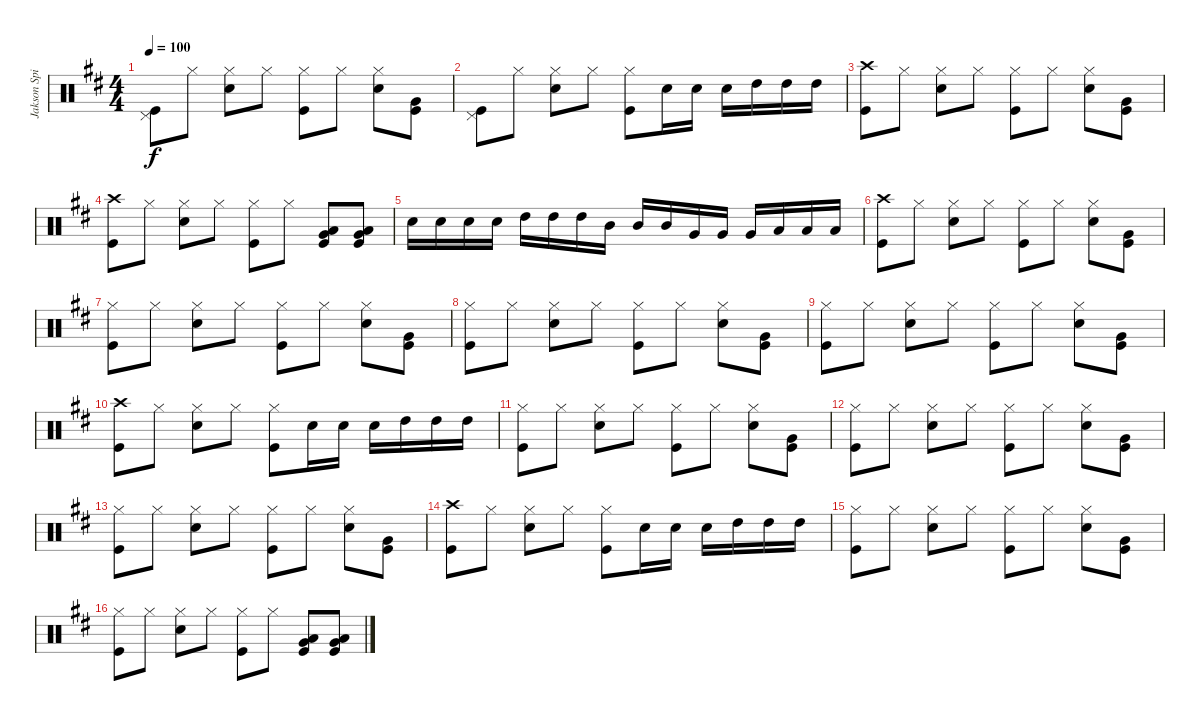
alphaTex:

\track ("Jakson Spires Drums" "Jakson Spi") {instrument percussion}
\staff {score}
\articulation defaults
\ts (4 4)
\tempo 100
\clef neutral
\ks d
("Pedal Hi-Hat (hit)" "Kick (hit)").8{dy f} "Hi-Hat (closed)".8 ("Hi-Hat (closed)" "Snare (hit) 2").8 "Hi-Hat (closed)".8 ("Hi-Hat (closed)" "Kick (hit)").8 "Hi-Hat (closed)".8 ("Hi-Hat (closed)" "Snare (hit) 2").8 ("Very Low Tom (hit)" "Kick (hit)").8 |
("Pedal Hi-Hat (hit)" "Kick (hit)").8 "Hi-Hat (closed)".8 ("Hi-Hat (closed)" "Snare (hit) 2").8 "Hi-Hat (closed)".8 ("Hi-Hat (closed)" "Kick (hit)").8 "Snare (hit) 2".16 "Snare (hit) 2".16 "Snare (hit) 2".16 "High Tom (hit)".16 "High Tom (hit)".16 "High Tom (hit)".16 |
("Crash high (hit)" "Kick (hit)").8 "Hi-Hat (closed)".8 ("Hi-Hat (closed)" "Snare (hit) 2").8 "Hi-Hat (closed)".8 ("Hi-Hat (closed)" "Kick (hit)").8 "Hi-Hat (closed)".8 ("Hi-Hat (closed)" "Snare (hit) 2").8 ("Very Low Tom (hit)" "Kick (hit)").8 |
("Crash high (hit)" "Kick (hit)").8 "Hi-Hat (closed)".8 ("Hi-Hat (closed)" "Snare (hit) 2").8 "Hi-Hat (closed)".8 ("Hi-Hat (closed)" "Kick (hit)").8 "Hi-Hat (closed)".8 ("Very Low Tom (hit)" "Low Tom (hit)" "Kick (hit)").8 ("Very Low Tom (hit)" "Low Tom (hit)" "Kick (hit)").8 |
"Snare (hit) 2".16 "Snare (hit) 2".16 "Snare (hit) 2".16 "Snare (hit) 2".16 "High Tom (hit)".16 "High Tom (hit)".16 "High Tom (hit)".16 "Mid Tom (hit)".16 "Mid Tom (hit)".16 "Mid Tom (hit)".16 "Very Low Tom (hit)".16 "Very Low Tom (hit)".16 "Very Low Tom (hit)".16 "Low Tom (hit)".16 "Low Tom (hit)".16 "Low Tom (hit)".16 |
("Crash high (hit)" "Kick (hit)").8 "Hi-Hat (closed)".8 ("Hi-Hat (closed)" "Snare (hit) 2").8 "Hi-Hat (closed)".8 ("Hi-Hat (closed)" "Kick (hit)").8 "Hi-Hat (closed)".8 ("Hi-Hat (closed)" "Snare (hit) 2").8 ("Very Low Tom (hit)" "Kick (hit)").8 |
("Hi-Hat (closed)" "Kick (hit)").8 "Hi-Hat (closed)".8 ("Hi-Hat (closed)" "Snare (hit) 2").8 "Hi-Hat (closed)".8 ("Hi-Hat (closed)" "Kick (hit)").8 "Hi-Hat (closed)".8 ("Hi-Hat (closed)" "Snare (hit) 2").8 ("Very Low Tom (hit)" "Kick (hit)").8 |
("Hi-Hat (closed)" "Kick (hit)").8{volume 11} "Hi-Hat (closed)".8 ("Hi-Hat (closed)" "Snare (hit) 2").8 "Hi-Hat (closed)".8 ("Hi-Hat (closed)" "Kick (hit)").8 "Hi-Hat (closed)".8 ("Hi-Hat (closed)" "Snare (hit) 2").8 ("Very Low Tom (hit)" "Kick (hit)").8 |
("Hi-Hat (closed)" "Kick (hit)").8 "Hi-Hat (closed)".8 ("Hi-Hat (closed)" "Snare (hit) 2").8 "Hi-Hat (closed)".8 ("Hi-Hat (closed)" "Kick (hit)").8 "Hi-Hat (closed)".8 ("Hi-Hat (closed)" "Snare (hit) 2").8 ("Very Low Tom (hit)" "Kick (hit)").8 |
("Crash high (hit)" "Kick (hit)").8{volume 8} "Hi-Hat (closed)".8 ("Hi-Hat (closed)" "Snare (hit) 2").8 "Hi-Hat (closed)".8 ("Hi-Hat (closed)" "Kick (hit)").8 "Snare (hit) 2".16 "Snare (hit) 2".16 "Snare (hit) 2".16 "High Tom (hit)".16 "High Tom (hit)".16 "High Tom (hit)".16 |
("Hi-Hat (closed)" "Kick (hit)").8 "Hi-Hat (closed)".8 ("Hi-Hat (closed)" "Snare (hit) 2").8 "Hi-Hat (closed)".8 ("Hi-Hat (closed)" "Kick (hit)").8 "Hi-Hat (closed)".8 ("Hi-Hat (closed)" "Snare (hit) 2").8 ("Very Low Tom (hit)" "Kick (hit)").8 |
("Hi-Hat (closed)" "Kick (hit)").8{volume 9} "Hi-Hat (closed)".8 ("Hi-Hat (closed)" "Snare (hit) 2").8 "Hi-Hat (closed)".8 ("Hi-Hat (closed)" "Kick (hit)").8 "Hi-Hat (closed)".8 ("Hi-Hat (closed)" "Snare (hit) 2").8 ("Very Low Tom (hit)" "Kick (hit)").8 |
("Hi-Hat (closed)" "Kick (hit)").8 "Hi-Hat (closed)".8 ("Hi-Hat (closed)" "Snare (hit) 2").8 "Hi-Hat (closed)".8 ("Hi-Hat (closed)" "Kick (hit)").8 "Hi-Hat (closed)".8 ("Hi-Hat (closed)" "Snare (hit) 2").8 ("Very Low Tom (hit)" "Kick (hit)").8 |
("Crash high (hit)" "Kick (hit)").8 "Hi-Hat (closed)".8{volume 7} ("Hi-Hat (closed)" "Snare (hit) 2").8 "Hi-Hat (closed)".8 ("Hi-Hat (closed)" "Kick (hit)").8 "Snare (hit) 2".16 "Snare (hit) 2".16 "Snare (hit) 2".16 "High Tom (hit)".16 "High Tom (hit)".16 "High Tom (hit)".16 |
("Hi-Hat (closed)" "Kick (hit)").8 "Hi-Hat (closed)".8 ("Hi-Hat (closed)" "Snare (hit) 2").8 "Hi-Hat (closed)".8 ("Hi-Hat (closed)" "Kick (hit)").8 "Hi-Hat (closed)".8 ("Hi-Hat (closed)" "Snare (hit) 2").8 ("Very Low Tom (hit)" "Kick (hit)").8 |
("Hi-Hat (closed)" "Kick (hit)").8 "Hi-Hat (closed)".8 ("Hi-Hat (closed)" "Snare (hit) 2").8 "Hi-Hat (closed)".8 ("Hi-Hat (closed)" "Kick (hit)").8 "Hi-Hat (closed)".8 ("Very Low Tom (hit)" "Low Tom (hit)" "Kick (hit)").8 ("Very Low Tom (hit)" "Low Tom (hit)" "Kick (hit)").8
